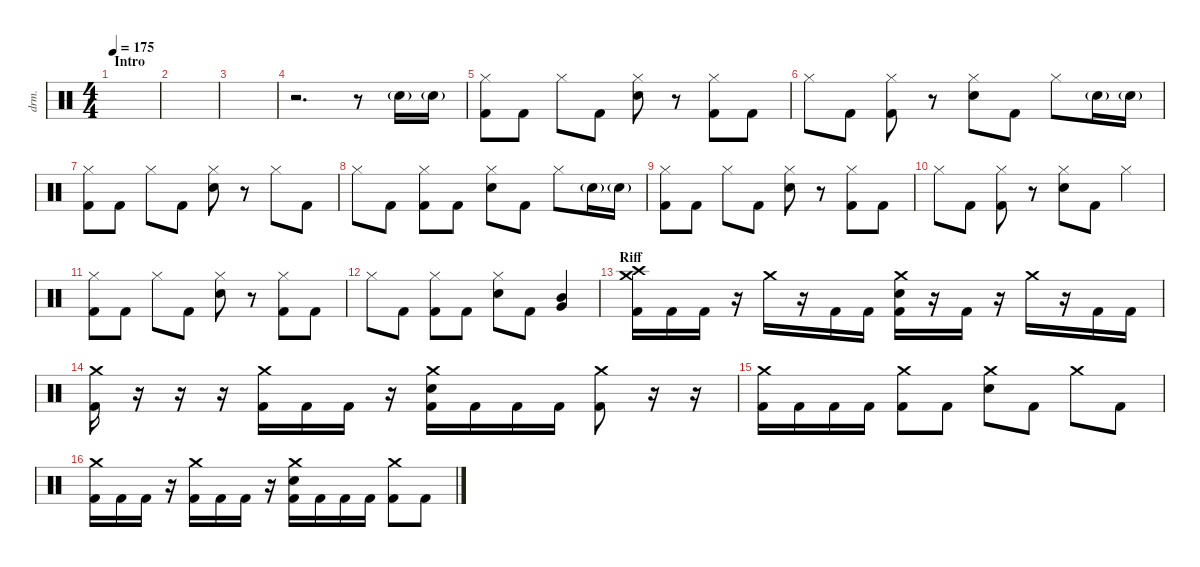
\defaultSystemsLayout 4
\hideDynamics
\bracketExtendMode nobrackets
\track ("Drums - Mario" "drm.") {instrument percussion}
\staff {score}
\articulation defaults
\ts (4 4)
\section ("" "Intro")
\tempo 175
\clef neutral
\ks c
|
|
|
r.2{d} r.8 "Snare (hit) 2"{g}.16 "Snare (hit) 2"{g}.16 |
("Kick (hit) 2" "Hi-Hat (closed)").8 "Kick (hit) 2".8 "Hi-Hat (closed)".8 "Kick (hit) 2".8 ("Snare (hit) 2" "Hi-Hat (closed)").8 r.8 ("Kick (hit) 2" "Hi-Hat (closed)").8 "Kick (hit) 2".8 |
"Hi-Hat (closed)".8 "Kick (hit) 2".8 ("Kick (hit) 2" "Hi-Hat (closed)").8 r.8 ("Snare (hit) 2" "Hi-Hat (closed)").8 "Kick (hit) 2".8 "Hi-Hat (closed)".8 "Snare (hit) 2"{g}.16 "Snare (hit) 2"{g}.16 |
("Kick (hit) 2" "Hi-Hat (closed)").8 "Kick (hit) 2".8 "Hi-Hat (closed)".8 "Kick (hit) 2".8 ("Snare (hit) 2" "Hi-Hat (closed)").8 r.8 "Hi-Hat (closed)".8 "Kick (hit) 2".8 |
"Hi-Hat (closed)".8 "Kick (hit) 2".8 ("Hi-Hat (closed)" "Kick (hit) 2").8 "Kick (hit) 2".8 ("Snare (hit) 2" "Hi-Hat (closed)").8 "Kick (hit) 2".8 "Hi-Hat (closed)".8 "Snare (hit) 2"{g}.16 "Snare (hit) 2"{g}.16 |
("Kick (hit) 2" "Hi-Hat (closed)").8 "Kick (hit) 2".8 "Hi-Hat (closed)".8 "Kick (hit) 2".8 ("Snare (hit) 2" "Hi-Hat (closed)").8 r.8 ("Kick (hit) 2" "Hi-Hat (closed)").8 "Kick (hit) 2".8 |
"Hi-Hat (closed)".8 "Kick (hit) 2".8 ("Kick (hit) 2" "Hi-Hat (closed)").8 r.8 ("Snare (hit) 2" "Hi-Hat (closed)").8 "Kick (hit) 2".8 "Hi-Hat (closed)".4 |
("Kick (hit) 2" "Hi-Hat (closed)").8 "Kick (hit) 2".8 "Hi-Hat (closed)".8 "Kick (hit) 2".8 ("Snare (hit) 2" "Hi-Hat (closed)").8 r.8 ("Hi-Hat (closed)" "Kick (hit) 2").8 "Kick (hit) 2".8 |
"Hi-Hat (closed)".8 "Kick (hit) 2".8 ("Hi-Hat (closed)" "Kick (hit) 2").8 "Kick (hit) 2".8 ("Snare (hit) 2" "Hi-Hat (closed)").8 "Kick (hit) 2".8 ("Very Low Tom (hit)" "Mid Tom (hit)").4 |
\section ("" "Riff")
("Kick (hit) 2" "Crash medium (hit)" "Crash high (hit)").16 "Kick (hit) 2".16 "Kick (hit) 2".16 r.16 "Crash medium (hit)".16 r.16 "Kick (hit) 2".16 "Kick (hit) 2".16 ("Kick (hit) 2" "Snare (hit) 2" "Crash medium (hit)").16 r.16 "Kick (hit) 2".16 r.16 "Crash medium (hit)".16 r.16 "Kick (hit) 2".16 "Kick (hit) 2".16 |
("Kick (hit) 2" "Crash medium (hit)").16 r.16 r.16 r.16 ("Kick (hit) 2" "Crash medium (hit)").16 "Kick (hit) 2".16 "Kick (hit) 2".16 r.16 ("Kick (hit) 2" "Snare (hit) 2" "Crash medium (hit)").16 "Kick (hit) 2".16 "Kick (hit) 2".16 "Kick (hit) 2".16 ("Kick (hit) 2" "Crash medium (hit)").8 r.16 r.16 |
("Kick (hit) 2" "Crash medium (hit)").16 "Kick (hit) 2".16 "Kick (hit) 2".16 "Kick (hit) 2".16 ("Kick (hit) 2" "Crash medium (hit)").8 "Kick (hit) 2".8 ("Snare (hit) 2" "Crash medium (hit)").8 "Kick (hit) 2".8 "Crash medium (hit)".8 "Kick (hit) 2".8 |
("Kick (hit) 2" "Crash medium (hit)").16 "Kick (hit) 2".16 "Kick (hit) 2".16 r.16 ("Kick (hit) 2" "Crash medium (hit)").16 "Kick (hit) 2".16 "Kick (hit) 2".16 r.16 ("Kick (hit) 2" "Snare (hit) 2" "Crash medium (hit)").16 "Kick (hit) 2".16 "Kick (hit) 2".16 "Kick (hit) 2".16 ("Kick (hit) 2" "Crash medium (hit)").8 "Kick (hit) 2".8
